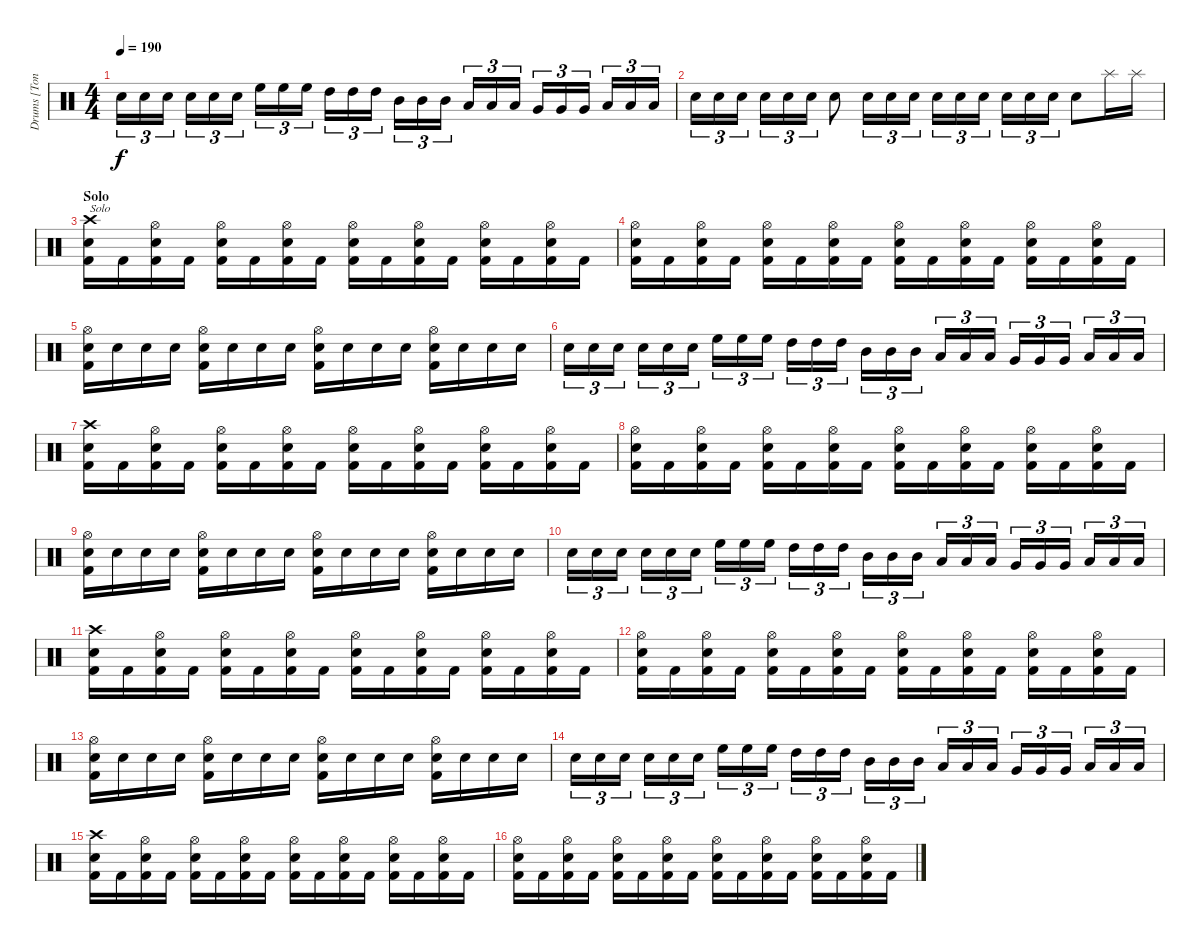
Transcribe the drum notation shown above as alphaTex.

\track ("Drums [Tony Laureano]" "Drums [Ton") {instrument percussion}
\staff {score}
\articulation defaults
\ts (4 4)
\tempo 190
\clef neutral
\ks c "Electric Snare (hit)".16{tu (3 2) dy f} "Electric Snare (hit)".16{tu (3 2)} "Electric Snare (hit)".16{tu (3 2)} "Electric Snare (hit)".16{tu (3 2)} "Electric Snare (hit)".16{tu (3 2)} "Electric Snare (hit)".16{tu (3 2)} "High Floor Tom (hit)".16{tu (3 2)} "High Floor Tom (hit)".16{tu (3 2)} "High Floor Tom (hit)".16{tu (3 2)} "High Tom (hit)".16{tu (3 2)} "High Tom (hit)".16{tu (3 2)} "High Tom (hit)".16{tu (3 2)} "Mid Tom (hit)".16{tu (3 2)} "Mid Tom (hit)".16{tu (3 2)} "Mid Tom (hit)".16{tu (3 2)} "Low Tom (hit)".16{tu (3 2)} "Low Tom (hit)".16{tu (3 2)} "Low Tom (hit)".16{tu (3 2)} "Very Low Tom (hit)".16{tu (3 2)} "Very Low Tom (hit)".16{tu (3 2)} "Very Low Tom (hit)".16{tu (3 2)} "Low Floor Tom (hit)".16{tu (3 2)} "Low Floor Tom (hit)".16{tu (3 2)} "Low Floor Tom (hit)".16{tu (3 2)}
|
"Electric Snare (hit)".16{tu (3 2)} "Electric Snare (hit)".16{tu (3 2)} "Electric Snare (hit)".16{tu (3 2)} "Electric Snare (hit)".16{tu (3 2)} "Electric Snare (hit)".16{tu (3 2)} "Electric Snare (hit)".16{tu (3 2)} "Electric Snare (hit)".8 "Electric Snare (hit)".16{tu (3 2)} "Electric Snare (hit)".16{tu (3 2)} "Electric Snare (hit)".16{tu (3 2)} "Electric Snare (hit)".16{tu (3 2)} "Electric Snare (hit)".16{tu (3 2)} "Electric Snare (hit)".16{tu (3 2)} "Electric Snare (hit)".16{tu (3 2)} "Electric Snare (hit)".16{tu (3 2)} "Electric Snare (hit)".16{tu (3 2)} "Electric Snare (hit)".8 "Splash (hit)".16 "Splash (hit)".16 |
\section ("" "Solo")
("Crash high (hit)" "Electric Snare (hit)" "Kick (hit) 2").16{txt "Solo"} "Kick (hit) 2".16 ("Hi-Hat (open)" "Electric Snare (hit)" "Kick (hit) 2").16 "Kick (hit) 2".16 ("Hi-Hat (open)" "Electric Snare (hit)" "Kick (hit) 2").16 "Kick (hit) 2".16 ("Hi-Hat (open)" "Electric Snare (hit)" "Kick (hit) 2").16 "Kick (hit) 2".16 ("Hi-Hat (open)" "Electric Snare (hit)" "Kick (hit) 2").16 "Kick (hit) 2".16 ("Hi-Hat (open)" "Electric Snare (hit)" "Kick (hit) 2").16 "Kick (hit) 2".16 ("Hi-Hat (open)" "Electric Snare (hit)" "Kick (hit) 2").16 "Kick (hit) 2".16 ("Hi-Hat (open)" "Electric Snare (hit)" "Kick (hit) 2").16 "Kick (hit) 2".16 |
("Hi-Hat (open)" "Electric Snare (hit)" "Kick (hit) 2").16 "Kick (hit) 2".16 ("Hi-Hat (open)" "Electric Snare (hit)" "Kick (hit) 2").16 "Kick (hit) 2".16 ("Hi-Hat (open)" "Electric Snare (hit)" "Kick (hit) 2").16 "Kick (hit) 2".16 ("Hi-Hat (open)" "Electric Snare (hit)" "Kick (hit) 2").16 "Kick (hit) 2".16 ("Hi-Hat (open)" "Electric Snare (hit)" "Kick (hit) 2").16 "Kick (hit) 2".16 ("Hi-Hat (open)" "Electric Snare (hit)" "Kick (hit) 2").16 "Kick (hit) 2".16 ("Hi-Hat (open)" "Electric Snare (hit)" "Kick (hit) 2").16 "Kick (hit) 2".16 ("Hi-Hat (open)" "Electric Snare (hit)" "Kick (hit) 2").16 "Kick (hit) 2".16 |
("Hi-Hat (open)" "Electric Snare (hit)" "Kick (hit) 2").16 "Electric Snare (hit)".16 "Electric Snare (hit)".16 "Electric Snare (hit)".16 ("Hi-Hat (open)" "Electric Snare (hit)" "Kick (hit) 2").16 "Electric Snare (hit)".16 "Electric Snare (hit)".16 "Electric Snare (hit)".16 ("Hi-Hat (open)" "Electric Snare (hit)" "Kick (hit) 2").16 "Electric Snare (hit)".16 "Electric Snare (hit)".16 "Electric Snare (hit)".16 ("Hi-Hat (open)" "Electric Snare (hit)" "Kick (hit) 2").16 "Electric Snare (hit)".16 "Electric Snare (hit)".16 "Electric Snare (hit)".16 |
"Electric Snare (hit)".16{tu (3 2)} "Electric Snare (hit)".16{tu (3 2)} "Electric Snare (hit)".16{tu (3 2)} "Electric Snare (hit)".16{tu (3 2)} "Electric Snare (hit)".16{tu (3 2)} "Electric Snare (hit)".16{tu (3 2)} "High Floor Tom (hit)".16{tu (3 2)} "High Floor Tom (hit)".16{tu (3 2)} "High Floor Tom (hit)".16{tu (3 2)} "High Tom (hit)".16{tu (3 2)} "High Tom (hit)".16{tu (3 2)} "High Tom (hit)".16{tu (3 2)} "Mid Tom (hit)".16{tu (3 2)} "Mid Tom (hit)".16{tu (3 2)} "Mid Tom (hit)".16{tu (3 2)} "Low Tom (hit)".16{tu (3 2)} "Low Tom (hit)".16{tu (3 2)} "Low Tom (hit)".16{tu (3 2)} "Very Low Tom (hit)".16{tu (3 2)} "Very Low Tom (hit)".16{tu (3 2)} "Very Low Tom (hit)".16{tu (3 2)} "Low Floor Tom (hit)".16{tu (3 2)} "Low Floor Tom (hit)".16{tu (3 2)} "Low Floor Tom (hit)".16{tu (3 2)} |
("Crash high (hit)" "Electric Snare (hit)" "Kick (hit) 2").16 "Kick (hit) 2".16 ("Hi-Hat (open)" "Electric Snare (hit)" "Kick (hit) 2").16 "Kick (hit) 2".16 ("Hi-Hat (open)" "Electric Snare (hit)" "Kick (hit) 2").16 "Kick (hit) 2".16 ("Hi-Hat (open)" "Electric Snare (hit)" "Kick (hit) 2").16 "Kick (hit) 2".16 ("Hi-Hat (open)" "Electric Snare (hit)" "Kick (hit) 2").16 "Kick (hit) 2".16 ("Hi-Hat (open)" "Electric Snare (hit)" "Kick (hit) 2").16 "Kick (hit) 2".16 ("Hi-Hat (open)" "Electric Snare (hit)" "Kick (hit) 2").16 "Kick (hit) 2".16 ("Hi-Hat (open)" "Electric Snare (hit)" "Kick (hit) 2").16 "Kick (hit) 2".16 |
("Hi-Hat (open)" "Electric Snare (hit)" "Kick (hit) 2").16 "Kick (hit) 2".16 ("Hi-Hat (open)" "Electric Snare (hit)" "Kick (hit) 2").16 "Kick (hit) 2".16 ("Hi-Hat (open)" "Electric Snare (hit)" "Kick (hit) 2").16 "Kick (hit) 2".16 ("Hi-Hat (open)" "Electric Snare (hit)" "Kick (hit) 2").16 "Kick (hit) 2".16 ("Hi-Hat (open)" "Electric Snare (hit)" "Kick (hit) 2").16 "Kick (hit) 2".16 ("Hi-Hat (open)" "Electric Snare (hit)" "Kick (hit) 2").16 "Kick (hit) 2".16 ("Hi-Hat (open)" "Electric Snare (hit)" "Kick (hit) 2").16 "Kick (hit) 2".16 ("Hi-Hat (open)" "Electric Snare (hit)" "Kick (hit) 2").16 "Kick (hit) 2".16 |
("Hi-Hat (open)" "Electric Snare (hit)" "Kick (hit) 2").16 "Electric Snare (hit)".16 "Electric Snare (hit)".16 "Electric Snare (hit)".16 ("Hi-Hat (open)" "Electric Snare (hit)" "Kick (hit) 2").16 "Electric Snare (hit)".16 "Electric Snare (hit)".16 "Electric Snare (hit)".16 ("Hi-Hat (open)" "Electric Snare (hit)" "Kick (hit) 2").16 "Electric Snare (hit)".16 "Electric Snare (hit)".16 "Electric Snare (hit)".16 ("Hi-Hat (open)" "Electric Snare (hit)" "Kick (hit) 2").16 "Electric Snare (hit)".16 "Electric Snare (hit)".16 "Electric Snare (hit)".16 |
"Electric Snare (hit)".16{tu (3 2)} "Electric Snare (hit)".16{tu (3 2)} "Electric Snare (hit)".16{tu (3 2)} "Electric Snare (hit)".16{tu (3 2)} "Electric Snare (hit)".16{tu (3 2)} "Electric Snare (hit)".16{tu (3 2)} "High Floor Tom (hit)".16{tu (3 2)} "High Floor Tom (hit)".16{tu (3 2)} "High Floor Tom (hit)".16{tu (3 2)} "High Tom (hit)".16{tu (3 2)} "High Tom (hit)".16{tu (3 2)} "High Tom (hit)".16{tu (3 2)} "Mid Tom (hit)".16{tu (3 2)} "Mid Tom (hit)".16{tu (3 2)} "Mid Tom (hit)".16{tu (3 2)} "Low Tom (hit)".16{tu (3 2)} "Low Tom (hit)".16{tu (3 2)} "Low Tom (hit)".16{tu (3 2)} "Very Low Tom (hit)".16{tu (3 2)} "Very Low Tom (hit)".16{tu (3 2)} "Very Low Tom (hit)".16{tu (3 2)} "Low Floor Tom (hit)".16{tu (3 2)} "Low Floor Tom (hit)".16{tu (3 2)} "Low Floor Tom (hit)".16{tu (3 2)} |
("Crash high (hit)" "Electric Snare (hit)" "Kick (hit) 2").16 "Kick (hit) 2".16 ("Hi-Hat (open)" "Electric Snare (hit)" "Kick (hit) 2").16 "Kick (hit) 2".16 ("Hi-Hat (open)" "Electric Snare (hit)" "Kick (hit) 2").16 "Kick (hit) 2".16 ("Hi-Hat (open)" "Electric Snare (hit)" "Kick (hit) 2").16 "Kick (hit) 2".16 ("Hi-Hat (open)" "Electric Snare (hit)" "Kick (hit) 2").16 "Kick (hit) 2".16 ("Hi-Hat (open)" "Electric Snare (hit)" "Kick (hit) 2").16 "Kick (hit) 2".16 ("Hi-Hat (open)" "Electric Snare (hit)" "Kick (hit) 2").16 "Kick (hit) 2".16 ("Hi-Hat (open)" "Electric Snare (hit)" "Kick (hit) 2").16 "Kick (hit) 2".16 |
("Hi-Hat (open)" "Electric Snare (hit)" "Kick (hit) 2").16 "Kick (hit) 2".16 ("Hi-Hat (open)" "Electric Snare (hit)" "Kick (hit) 2").16 "Kick (hit) 2".16 ("Hi-Hat (open)" "Electric Snare (hit)" "Kick (hit) 2").16 "Kick (hit) 2".16 ("Hi-Hat (open)" "Electric Snare (hit)" "Kick (hit) 2").16 "Kick (hit) 2".16 ("Hi-Hat (open)" "Electric Snare (hit)" "Kick (hit) 2").16 "Kick (hit) 2".16 ("Hi-Hat (open)" "Electric Snare (hit)" "Kick (hit) 2").16 "Kick (hit) 2".16 ("Hi-Hat (open)" "Electric Snare (hit)" "Kick (hit) 2").16 "Kick (hit) 2".16 ("Hi-Hat (open)" "Electric Snare (hit)" "Kick (hit) 2").16 "Kick (hit) 2".16 |
("Hi-Hat (open)" "Electric Snare (hit)" "Kick (hit) 2").16 "Electric Snare (hit)".16 "Electric Snare (hit)".16 "Electric Snare (hit)".16 ("Hi-Hat (open)" "Electric Snare (hit)" "Kick (hit) 2").16 "Electric Snare (hit)".16 "Electric Snare (hit)".16 "Electric Snare (hit)".16 ("Hi-Hat (open)" "Electric Snare (hit)" "Kick (hit) 2").16 "Electric Snare (hit)".16 "Electric Snare (hit)".16 "Electric Snare (hit)".16 ("Hi-Hat (open)" "Electric Snare (hit)" "Kick (hit) 2").16 "Electric Snare (hit)".16 "Electric Snare (hit)".16 "Electric Snare (hit)".16 |
"Electric Snare (hit)".16{tu (3 2)} "Electric Snare (hit)".16{tu (3 2)} "Electric Snare (hit)".16{tu (3 2)} "Electric Snare (hit)".16{tu (3 2)} "Electric Snare (hit)".16{tu (3 2)} "Electric Snare (hit)".16{tu (3 2)} "High Floor Tom (hit)".16{tu (3 2)} "High Floor Tom (hit)".16{tu (3 2)} "High Floor Tom (hit)".16{tu (3 2)} "High Tom (hit)".16{tu (3 2)} "High Tom (hit)".16{tu (3 2)} "High Tom (hit)".16{tu (3 2)} "Mid Tom (hit)".16{tu (3 2)} "Mid Tom (hit)".16{tu (3 2)} "Mid Tom (hit)".16{tu (3 2)} "Low Tom (hit)".16{tu (3 2)} "Low Tom (hit)".16{tu (3 2)} "Low Tom (hit)".16{tu (3 2)} "Very Low Tom (hit)".16{tu (3 2)} "Very Low Tom (hit)".16{tu (3 2)} "Very Low Tom (hit)".16{tu (3 2)} "Low Floor Tom (hit)".16{tu (3 2)} "Low Floor Tom (hit)".16{tu (3 2)} "Low Floor Tom (hit)".16{tu (3 2)} |
("Crash high (hit)" "Electric Snare (hit)" "Kick (hit) 2").16 "Kick (hit) 2".16 ("Hi-Hat (open)" "Electric Snare (hit)" "Kick (hit) 2").16 "Kick (hit) 2".16 ("Hi-Hat (open)" "Electric Snare (hit)" "Kick (hit) 2").16 "Kick (hit) 2".16 ("Hi-Hat (open)" "Electric Snare (hit)" "Kick (hit) 2").16 "Kick (hit) 2".16 ("Hi-Hat (open)" "Electric Snare (hit)" "Kick (hit) 2").16 "Kick (hit) 2".16 ("Hi-Hat (open)" "Electric Snare (hit)" "Kick (hit) 2").16 "Kick (hit) 2".16 ("Hi-Hat (open)" "Electric Snare (hit)" "Kick (hit) 2").16 "Kick (hit) 2".16 ("Hi-Hat (open)" "Electric Snare (hit)" "Kick (hit) 2").16 "Kick (hit) 2".16 |
("Hi-Hat (open)" "Electric Snare (hit)" "Kick (hit) 2").16 "Kick (hit) 2".16 ("Hi-Hat (open)" "Electric Snare (hit)" "Kick (hit) 2").16 "Kick (hit) 2".16 ("Hi-Hat (open)" "Electric Snare (hit)" "Kick (hit) 2").16 "Kick (hit) 2".16 ("Hi-Hat (open)" "Electric Snare (hit)" "Kick (hit) 2").16 "Kick (hit) 2".16 ("Hi-Hat (open)" "Electric Snare (hit)" "Kick (hit) 2").16 "Kick (hit) 2".16 ("Hi-Hat (open)" "Electric Snare (hit)" "Kick (hit) 2").16 "Kick (hit) 2".16 ("Hi-Hat (open)" "Electric Snare (hit)" "Kick (hit) 2").16 "Kick (hit) 2".16 ("Hi-Hat (open)" "Electric Snare (hit)" "Kick (hit) 2").16 "Kick (hit) 2".16
